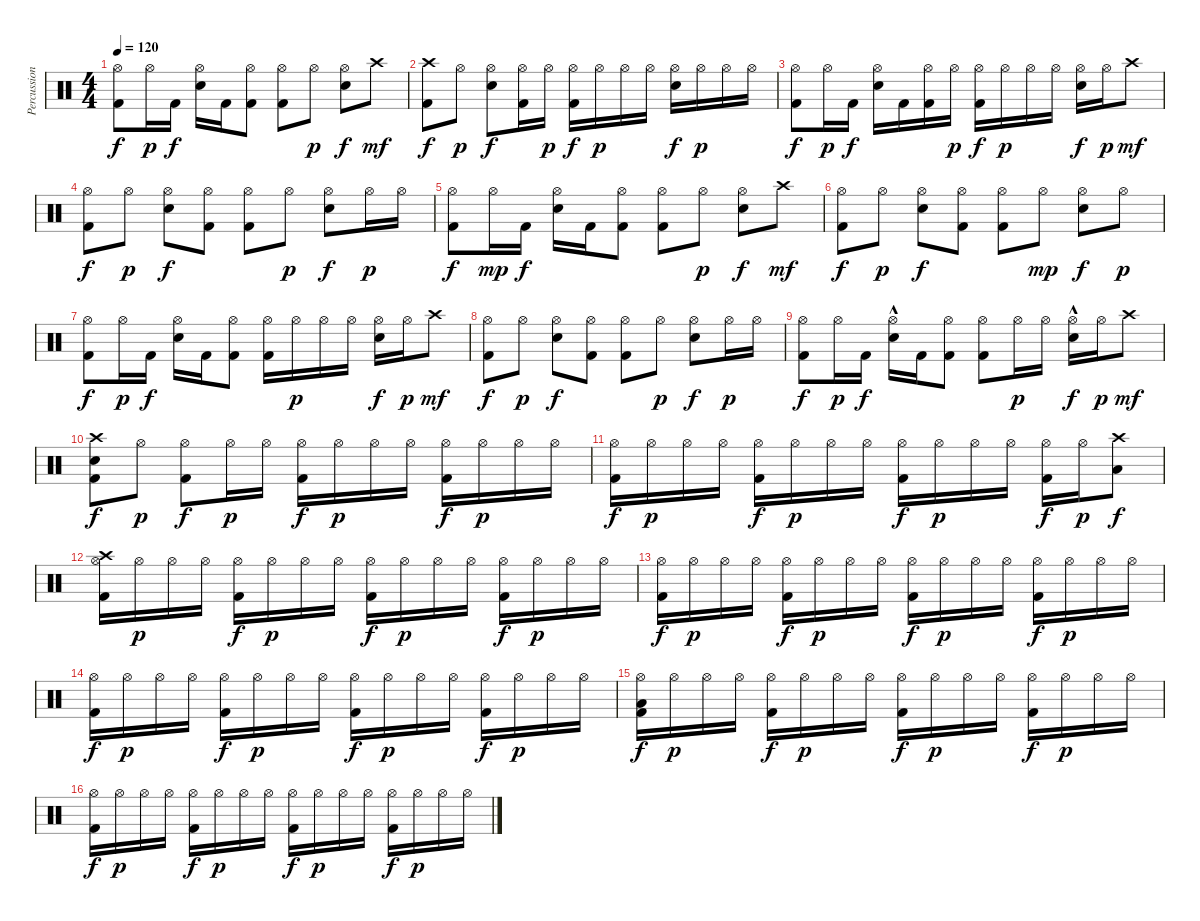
\track ("Percussion" "Percussion") {instrument percussion}
\staff {score}
\articulation defaults
\ts (4 4)
\tempo 120
\clef neutral
\ks c
("Hi-Hat (open)" "Kick (hit) 2").8{dy f} "Hi-Hat (open)".16{dy p} "Kick (hit) 2".16{dy f} ("Hi-Hat (open)" "Electric Snare (hit)").16 "Kick (hit) 2".16 ("Hi-Hat (open)" "Kick (hit) 2").8 ("Hi-Hat (open)" "Kick (hit) 2").8 "Hi-Hat (open)".8{dy p} ("Hi-Hat (open)" "Electric Snare (hit)").8{dy f} "Crash high (hit)".8{dy mf} |
("Crash high (hit)" "Kick (hit) 2").8{dy f} "Hi-Hat (open)".8{dy p} ("Hi-Hat (open)" "Electric Snare (hit)").8{dy f} ("Hi-Hat (open)" "Kick (hit) 2").16 "Hi-Hat (open)".16{dy p} ("Hi-Hat (open)" "Kick (hit) 2").16{dy f} "Hi-Hat (open)".16{dy p} "Hi-Hat (open)".16 "Hi-Hat (open)".16 ("Hi-Hat (open)" "Electric Snare (hit)").16{dy f} "Hi-Hat (open)".16{dy p} "Hi-Hat (open)".16 "Hi-Hat (open)".16 |
("Hi-Hat (open)" "Kick (hit) 2").8{dy f} "Hi-Hat (open)".16{dy p} "Kick (hit) 2".16{dy f} ("Hi-Hat (open)" "Electric Snare (hit)").16 "Kick (hit) 2".16 ("Hi-Hat (open)" "Kick (hit) 2").16 "Hi-Hat (open)".16{dy p} ("Hi-Hat (open)" "Kick (hit) 2").16{dy f} "Hi-Hat (open)".16{dy p} "Hi-Hat (open)".16 "Hi-Hat (open)".16 ("Hi-Hat (open)" "Electric Snare (hit)").16{dy f} "Hi-Hat (open)".16{dy p} "Crash high (hit)".8{dy mf} |
("Hi-Hat (open)" "Kick (hit) 2").8{dy f} "Hi-Hat (open)".8{dy p} ("Hi-Hat (open)" "Electric Snare (hit)").8{dy f} ("Hi-Hat (open)" "Kick (hit) 2").8 ("Hi-Hat (open)" "Kick (hit) 2").8 "Hi-Hat (open)".8{dy p} ("Hi-Hat (open)" "Electric Snare (hit)").8{dy f} "Hi-Hat (open)".16{dy p} "Hi-Hat (open)".16 |
("Hi-Hat (open)" "Kick (hit) 2").8{dy f} "Hi-Hat (open)".16{dy mp} "Kick (hit) 2".16{dy f} ("Hi-Hat (open)" "Electric Snare (hit)").16 "Kick (hit) 2".16 ("Hi-Hat (open)" "Kick (hit) 2").8 ("Hi-Hat (open)" "Kick (hit) 2").8 "Hi-Hat (open)".8{dy p} ("Hi-Hat (open)" "Electric Snare (hit)").8{dy f} "Crash high (hit)".8{dy mf} |
("Hi-Hat (open)" "Kick (hit) 2").8{dy f} "Hi-Hat (open)".8{dy p} ("Hi-Hat (open)" "Electric Snare (hit)").8{dy f} ("Hi-Hat (open)" "Kick (hit) 2").8 ("Hi-Hat (open)" "Kick (hit) 2").8 "Hi-Hat (open)".8{dy mp} ("Hi-Hat (open)" "Electric Snare (hit)").8{dy f} "Hi-Hat (open)".8{dy p} |
("Hi-Hat (open)" "Kick (hit) 2").8{dy f} "Hi-Hat (open)".16{dy p} "Kick (hit) 2".16{dy f} ("Hi-Hat (open)" "Electric Snare (hit)").16 "Kick (hit) 2".16 ("Hi-Hat (open)" "Kick (hit) 2").8 ("Hi-Hat (open)" "Kick (hit) 2").16 "Hi-Hat (open)".16{dy p} "Hi-Hat (open)".16 "Hi-Hat (open)".16 ("Hi-Hat (open)" "Electric Snare (hit)").16{dy f} "Hi-Hat (open)".16{dy p} "Crash high (hit)".8{dy mf} |
("Hi-Hat (open)" "Kick (hit) 2").8{dy f} "Hi-Hat (open)".8{dy p} ("Hi-Hat (open)" "Electric Snare (hit)").8{dy f} ("Hi-Hat (open)" "Kick (hit) 2").8 ("Hi-Hat (open)" "Kick (hit) 2").8 "Hi-Hat (open)".8{dy p} ("Hi-Hat (open)" "Electric Snare (hit)").8{dy f} "Hi-Hat (open)".16{dy p} "Hi-Hat (open)".16 |
("Hi-Hat (open)" "Kick (hit) 2").8{dy f} "Hi-Hat (open)".16{dy p} "Kick (hit) 2".16{dy f} ("Hi-Hat (open)"{hac} "Electric Snare (hit)").16 "Kick (hit) 2".16 ("Hi-Hat (open)" "Kick (hit) 2").8 ("Hi-Hat (open)" "Kick (hit) 2").8 "Hi-Hat (open)".16{dy p} "Hi-Hat (open)".16 ("Hi-Hat (open)"{hac} "Electric Snare (hit)").16{dy f} "Hi-Hat (open)".16{dy p} "Crash high (hit)".8{dy mf} |
("Crash high (hit)" "Electric Snare (hit)" "Kick (hit) 2").8{dy f} "Hi-Hat (open)".8{dy p} ("Hi-Hat (open)" "Kick (hit) 2").8{dy f} "Hi-Hat (open)".16{dy p} "Hi-Hat (open)".16 ("Hi-Hat (open)" "Kick (hit) 2").16{dy f} "Hi-Hat (open)".16{dy p} "Hi-Hat (open)".16 "Hi-Hat (open)".16 ("Hi-Hat (open)" "Kick (hit) 2").16{dy f} "Hi-Hat (open)".16{dy p} "Hi-Hat (open)".16 "Hi-Hat (open)".16 |
("Hi-Hat (open)" "Kick (hit) 2").16{dy f} "Hi-Hat (open)".16{dy p} "Hi-Hat (open)".16 "Hi-Hat (open)".16 ("Hi-Hat (open)" "Kick (hit) 2").16{dy f} "Hi-Hat (open)".16{dy p} "Hi-Hat (open)".16 "Hi-Hat (open)".16 ("Hi-Hat (open)" "Kick (hit) 2").16{dy f} "Hi-Hat (open)".16{dy p} "Hi-Hat (open)".16 "Hi-Hat (open)".16 ("Hi-Hat (open)" "Kick (hit) 2").16{dy f} "Hi-Hat (open)".16{dy p} ("Crash high (hit)" "Low Tom (hit)").8{dy f} |
("Hi-Hat (open)" "Crash high (hit)" "Kick (hit) 2").16 "Hi-Hat (open)".16{dy p} "Hi-Hat (open)".16 "Hi-Hat (open)".16 ("Hi-Hat (open)" "Kick (hit) 2").16{dy f} "Hi-Hat (open)".16{dy p} "Hi-Hat (open)".16 "Hi-Hat (open)".16 ("Hi-Hat (open)" "Kick (hit) 2").16{dy f} "Hi-Hat (open)".16{dy p} "Hi-Hat (open)".16 "Hi-Hat (open)".16 ("Hi-Hat (open)" "Kick (hit) 2").16{dy f} "Hi-Hat (open)".16{dy p} "Hi-Hat (open)".16 "Hi-Hat (open)".16 |
("Hi-Hat (open)" "Kick (hit) 2").16{dy f} "Hi-Hat (open)".16{dy p} "Hi-Hat (open)".16 "Hi-Hat (open)".16 ("Hi-Hat (open)" "Kick (hit) 2").16{dy f} "Hi-Hat (open)".16{dy p} "Hi-Hat (open)".16 "Hi-Hat (open)".16 ("Hi-Hat (open)" "Kick (hit) 2").16{dy f} "Hi-Hat (open)".16{dy p} "Hi-Hat (open)".16 "Hi-Hat (open)".16 ("Hi-Hat (open)" "Kick (hit) 2").16{dy f} "Hi-Hat (open)".16{dy p} "Hi-Hat (open)".16 "Hi-Hat (open)".16 |
("Hi-Hat (open)" "Kick (hit) 2").16{dy f} "Hi-Hat (open)".16{dy p} "Hi-Hat (open)".16 "Hi-Hat (open)".16 ("Hi-Hat (open)" "Kick (hit) 2").16{dy f} "Hi-Hat (open)".16{dy p} "Hi-Hat (open)".16 "Hi-Hat (open)".16 ("Hi-Hat (open)" "Kick (hit) 2").16{dy f} "Hi-Hat (open)".16{dy p} "Hi-Hat (open)".16 "Hi-Hat (open)".16 ("Hi-Hat (open)" "Kick (hit) 2").16{dy f} "Hi-Hat (open)".16{dy p} "Hi-Hat (open)".16 "Hi-Hat (open)".16 |
("Hi-Hat (open)" "Low Tom (hit)" "Kick (hit) 2").16{dy f} "Hi-Hat (open)".16{dy p} "Hi-Hat (open)".16 "Hi-Hat (open)".16 ("Hi-Hat (open)" "Kick (hit) 2").16{dy f} "Hi-Hat (open)".16{dy p} "Hi-Hat (open)".16 "Hi-Hat (open)".16 ("Hi-Hat (open)" "Kick (hit) 2").16{dy f} "Hi-Hat (open)".16{dy p} "Hi-Hat (open)".16 "Hi-Hat (open)".16 ("Hi-Hat (open)" "Kick (hit) 2").16{dy f} "Hi-Hat (open)".16{dy p} "Hi-Hat (open)".16 "Hi-Hat (open)".16 |
("Hi-Hat (open)" "Kick (hit) 2").16{dy f} "Hi-Hat (open)".16{dy p} "Hi-Hat (open)".16 "Hi-Hat (open)".16 ("Hi-Hat (open)" "Kick (hit) 2").16{dy f} "Hi-Hat (open)".16{dy p} "Hi-Hat (open)".16 "Hi-Hat (open)".16 ("Hi-Hat (open)" "Kick (hit) 2").16{dy f} "Hi-Hat (open)".16{dy p} "Hi-Hat (open)".16 "Hi-Hat (open)".16 ("Hi-Hat (open)" "Kick (hit) 2").16{dy f} "Hi-Hat (open)".16{dy p} "Hi-Hat (open)".16 "Hi-Hat (open)".16
